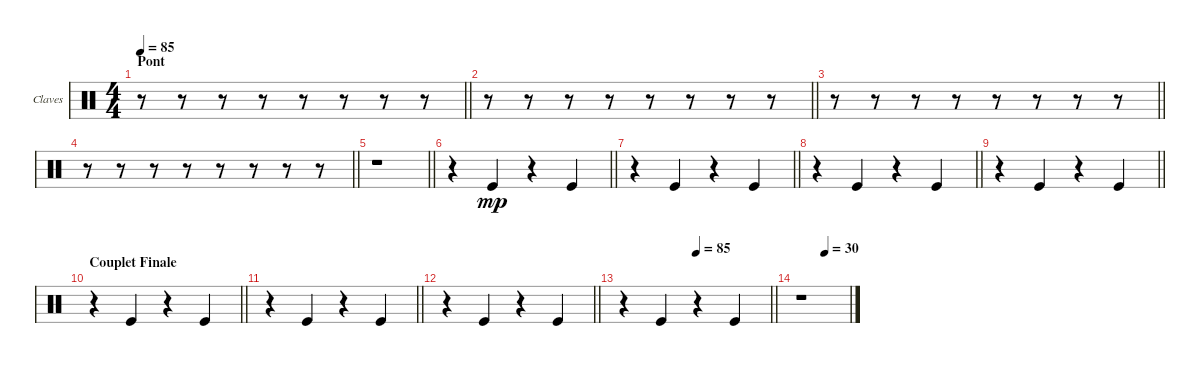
\bracketExtendMode groupsimilarinstruments
\firstSystemTrackNameOrientation horizontal
\otherSystemsTrackNameOrientation horizontal
\chordDiagramsInScore
\track ("Claves" "Claves") {instrument percussion}
\staff {score}
\articulation defaults
\ts (4 4)
\section ("" "Pont")
\tempo 85
\clef neutral
\barLineRight lightlight
\ks c
r.8{dy mp} r.8 r.8 r.8 r.8 r.8 r.8 r.8 |
\barLineRight lightlight
r.8 r.8 r.8 r.8 r.8 r.8 r.8 r.8 |
\barLineRight lightlight
r.8 r.8 r.8 r.8 r.8 r.8 r.8 r.8 |
\barLineRight lightlight
r.8 r.8 r.8 r.8 r.8 r.8 r.8 r.8 |
\barLineRight lightlight
r.1 |
\barLineRight lightlight
r.4 "Kick (hit)".4 r.4 "Kick (hit)".4 |
\barLineRight lightlight
r.4 "Kick (hit)".4 r.4 "Kick (hit)".4 |
\barLineRight lightlight
r.4 "Kick (hit)".4 r.4 "Kick (hit)".4 |
\barLineRight lightlight
r.4 "Kick (hit)".4 r.4 "Kick (hit)".4 |
\section ("" "Couplet Finale")
\barLineRight lightlight
r.4 "Kick (hit)".4 r.4 "Kick (hit)".4 |
\barLineRight lightlight
r.4 "Kick (hit)".4 r.4 "Kick (hit)".4 |
\barLineRight lightlight
r.4 "Kick (hit)".4 r.4 "Kick (hit)".4 |
\tempo (85 0.5)
\barLineRight lightlight
r.4 "Kick (hit)".4 r.4 "Kick (hit)".4 |
\tempo (30 0.5)
r.1
